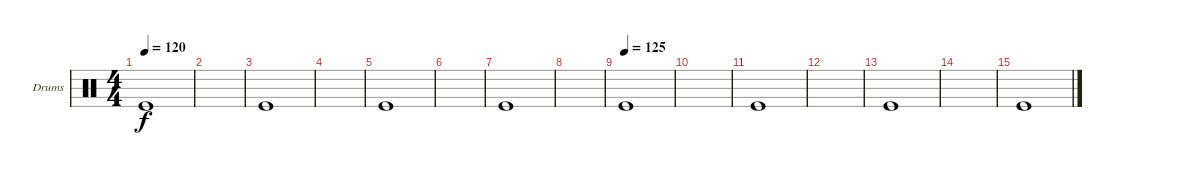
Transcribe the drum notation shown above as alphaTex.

\defaultSystemsLayout 4
\bracketExtendMode groupsimilarinstruments
\firstSystemTrackNameOrientation horizontal
\otherSystemsTrackNameOrientation horizontal
\track ("Drum" "Drums") {instrument percussion}
\staff {score}
\articulation defaults
\ts (4 4)
\tempo 120
\clef neutral
\ks c "Kick (hit)".1{dy f}
|
|
"Kick (hit)".1 |
|
"Kick (hit)".1 |
|
"Kick (hit)".1 |
|
\tempo (125)
"Kick (hit)".1 |
|
"Kick (hit)".1 |
|
"Kick (hit)".1 |
|
"Kick (hit)".1
